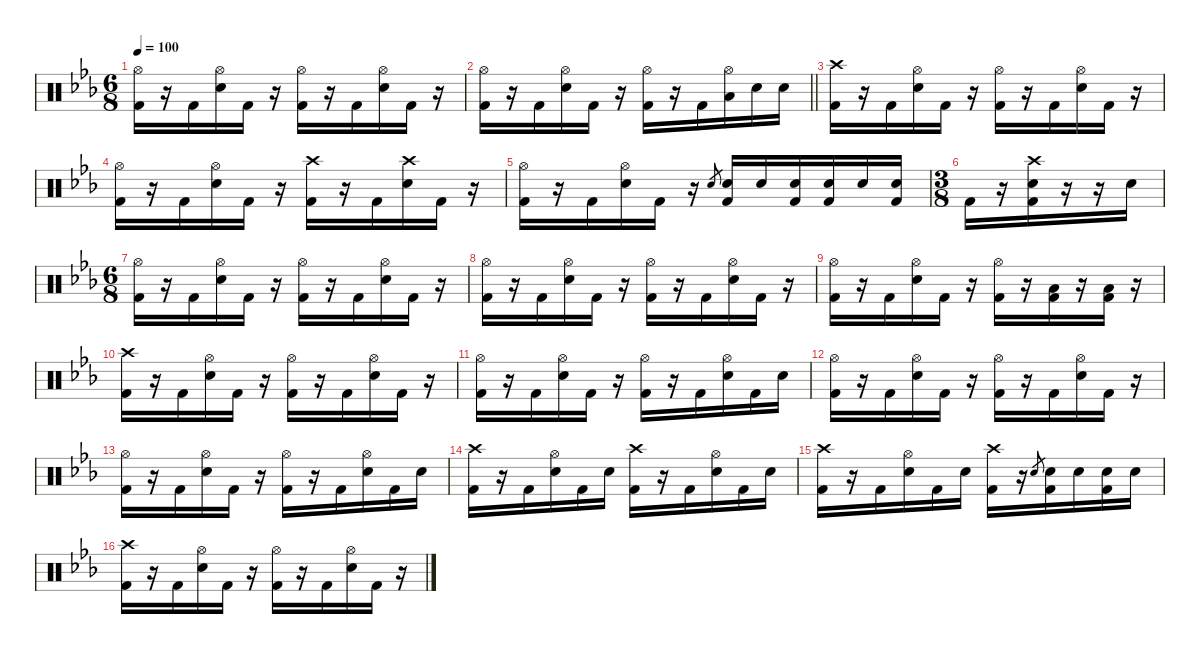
\defaultSystemsLayout 4
\hideDynamics
\bracketExtendMode nobrackets
\singleTrackTrackNamePolicy hidden
\multiTrackTrackNamePolicy hidden
\firstSystemTrackNameMode fullname
\otherSystemsTrackNameOrientation horizontal
\track ("DRUMS" "drm.") {instrument percussion}
\staff {score}
\articulation defaults
\ts (6 8)
\tempo 100
\clef neutral
\ks eb
("Hi-Hat (open)"{acc forcenatural} "Kick (hit) 2"{acc forcenatural}).16{dy f beam Down} r.16{beam Down} "Kick (hit) 2"{acc forcenatural}.16{beam Down} ("Hi-Hat (open)"{acc forcenatural} "Snare (hit) 2"{acc forcenatural}).16{beam Down} "Kick (hit) 2"{acc forcenatural}.16{beam Down} r.16{beam Down} ("Hi-Hat (open)"{acc forcenatural} "Kick (hit) 2"{acc forcenatural}).16{beam Down} r.16{beam Down} "Kick (hit) 2"{acc forcenatural}.16{beam Down} ("Hi-Hat (open)"{acc forcenatural} "Snare (hit) 2"{acc forcenatural}).16{beam Down} "Kick (hit) 2"{acc forcenatural}.16{beam Down} r.16{beam Down} |
\barLineRight lightlight
("Hi-Hat (open)"{acc forcenatural} "Kick (hit) 2"{acc forcenatural}).16{beam Down} r.16{beam Down} "Kick (hit) 2"{acc forcenatural}.16{beam Down} ("Hi-Hat (open)"{acc forcenatural} "Snare (hit) 2"{acc forcenatural}).16{beam Down} "Kick (hit) 2"{acc forcenatural}.16{beam Down} r.16{beam Down} ("Hi-Hat (open)"{acc forcenatural} "Kick (hit) 2"{acc forcenatural}).16{beam Down} r.16{beam Down} "Kick (hit) 2"{acc forcenatural}.16{beam Down} ("Hi-Hat (open)"{acc forcenatural} "Low Tom (hit)"{acc forcenatural}).16{beam Down} "Snare (hit) 2"{acc forcenatural}.16{beam Down} "Snare (hit) 2"{acc forcenatural}.16{beam Down} |
("Crash high (hit)"{acc forcenatural} "Kick (hit) 2"{acc forcenatural}).16{beam Down} r.16{beam Down} "Kick (hit) 2"{acc forcenatural}.16{beam Down} ("Hi-Hat (open)"{acc forcenatural} "Snare (hit) 2"{acc forcenatural}).16{beam Down} "Kick (hit) 2"{acc forcenatural}.16{beam Down} r.16{beam Down} ("Hi-Hat (open)"{acc forcenatural} "Kick (hit) 2"{acc forcenatural}).16{beam Down} r.16{beam Down} "Kick (hit) 2"{acc forcenatural}.16{beam Down} ("Hi-Hat (open)"{acc forcenatural} "Snare (hit) 2"{acc forcenatural}).16{beam Down} "Kick (hit) 2"{acc forcenatural}.16{beam Down} r.16{beam Down} |
("Hi-Hat (open)"{acc forcenatural} "Kick (hit) 2"{acc forcenatural}).16{beam Down} r.16{beam Down} "Kick (hit) 2"{acc forcenatural}.16{beam Down} ("Hi-Hat (open)"{acc forcenatural} "Snare (hit) 2"{acc forcenatural}).16{beam Down} "Kick (hit) 2"{acc forcenatural}.16{beam Down} r.16{beam Down} ("Crash high (hit)"{acc forcenatural} "Kick (hit) 2"{acc forcenatural}).16{beam Down} r.16{beam Down} "Kick (hit) 2"{acc forcenatural}.16{beam Down} ("Crash high (hit)"{acc forcenatural} "Snare (hit) 2"{acc forcenatural}).16{beam Down} "Kick (hit) 2"{acc forcenatural}.16{beam Down} r.16{beam Down} |
("Hi-Hat (open)"{acc forcenatural} "Kick (hit) 2"{acc forcenatural}).16{beam Down} r.16{beam Down} "Kick (hit) 2"{acc forcenatural}.16{beam Down} ("Hi-Hat (open)"{acc forcenatural} "Snare (hit) 2"{acc forcenatural}).16{beam Down} "Kick (hit) 2"{acc forcenatural}.16{beam Down} r.16{beam Down} "Electric Snare (hit)"{acc forcenatural}.8{gr beam Up} ("Snare (hit) 2"{acc forcenatural} "Kick (hit) 2"{acc forcenatural}).16{dy ff beam Up} "Snare (hit) 2"{acc forcenatural}.16{dy mf beam Up} ("Snare (hit) 2"{acc forcenatural} "Kick (hit) 2"{acc forcenatural}).16{beam Up} ("Snare (hit) 2"{acc forcenatural} "Kick (hit) 2"{acc forcenatural}).16{dy ff beam Up} "Snare (hit) 2"{acc forcenatural}.16{dy mf beam Up} ("Snare (hit) 2"{acc forcenatural} "Kick (hit) 2"{acc forcenatural}).16{beam Up} |
\ts (3 8)
\beaming (8 3)
"Kick (hit) 2"{acc forcenatural}.16{dy f beam Down} r.16{beam Down} ("Crash high (hit)"{acc forcenatural} "Snare (hit) 2"{acc forcenatural} "Kick (hit) 2"{acc forcenatural}).16{dy ff beam Down} r.16{beam Down} r.16{beam Down} "Snare (hit) 2"{acc forcenatural}.16{dy f beam Down} |
\ts (6 8)
\beaming (8 3 3)
("Hi-Hat (open)"{acc forcenatural} "Kick (hit) 2"{acc forcenatural}).16{beam Down} r.16{beam Down} "Kick (hit) 2"{acc forcenatural}.16{beam Down} ("Hi-Hat (open)"{acc forcenatural} "Snare (hit) 2"{acc forcenatural}).16{beam Down} "Kick (hit) 2"{acc forcenatural}.16{beam Down} r.16{beam Down} ("Hi-Hat (open)"{acc forcenatural} "Kick (hit) 2"{acc forcenatural}).16{beam Down} r.16{beam Down} "Kick (hit) 2"{acc forcenatural}.16{beam Down} ("Hi-Hat (open)"{acc forcenatural} "Snare (hit) 2"{acc forcenatural}).16{beam Down} "Kick (hit) 2"{acc forcenatural}.16{beam Down} r.16{beam Down} |
("Hi-Hat (open)"{acc forcenatural} "Kick (hit) 2"{acc forcenatural}).16{beam Down} r.16{beam Down} "Kick (hit) 2"{acc forcenatural}.16{beam Down} ("Hi-Hat (open)"{acc forcenatural} "Snare (hit) 2"{acc forcenatural}).16{beam Down} "Kick (hit) 2"{acc forcenatural}.16{beam Down} r.16{beam Down} ("Hi-Hat (open)"{acc forcenatural} "Kick (hit) 2"{acc forcenatural}).16{beam Down} r.16{beam Down} "Kick (hit) 2"{acc forcenatural}.16{beam Down} ("Hi-Hat (open)"{acc forcenatural} "Snare (hit) 2"{acc forcenatural}).16{beam Down} "Kick (hit) 2"{acc forcenatural}.16{beam Down} r.16{beam Down} |
("Hi-Hat (open)"{acc forcenatural} "Kick (hit) 2"{acc forcenatural}).16{beam Down} r.16{beam Down} "Kick (hit) 2"{acc forcenatural}.16{beam Down} ("Hi-Hat (open)"{acc forcenatural} "Snare (hit) 2"{acc forcenatural}).16{beam Down} "Kick (hit) 2"{acc forcenatural}.16{beam Down} r.16{beam Down} ("Hi-Hat (open)"{acc forcenatural} "Kick (hit) 2"{acc forcenatural}).16{beam Down} r.16{beam Down} ("Low Tom (hit)"{acc forcenatural} "Kick (hit) 2"{acc forcenatural}).16{dy ff beam Down} r.16{beam Down} ("Low Tom (hit)"{acc forcenatural} "Kick (hit) 2"{acc forcenatural}).16{beam Down} r.16{beam Down} |
("Crash high (hit)"{acc forcenatural} "Kick (hit) 2"{acc forcenatural}).16{dy f beam Down} r.16{beam Down} "Kick (hit) 2"{acc forcenatural}.16{beam Down} ("Hi-Hat (open)"{acc forcenatural} "Snare (hit) 2"{acc forcenatural}).16{beam Down} "Kick (hit) 2"{acc forcenatural}.16{beam Down} r.16{beam Down} ("Hi-Hat (open)"{acc forcenatural} "Kick (hit) 2"{acc forcenatural}).16{beam Down} r.16{beam Down} "Kick (hit) 2"{acc forcenatural}.16{beam Down} ("Hi-Hat (open)"{acc forcenatural} "Snare (hit) 2"{acc forcenatural}).16{beam Down} "Kick (hit) 2"{acc forcenatural}.16{beam Down} r.16{beam Down} |
("Hi-Hat (open)"{acc forcenatural} "Kick (hit) 2"{acc forcenatural}).16{beam Down} r.16{beam Down} "Kick (hit) 2"{acc forcenatural}.16{beam Down} ("Hi-Hat (open)"{acc forcenatural} "Snare (hit) 2"{acc forcenatural}).16{beam Down} "Kick (hit) 2"{acc forcenatural}.16{beam Down} r.16{beam Down} ("Hi-Hat (open)"{acc forcenatural} "Kick (hit) 2"{acc forcenatural}).16{beam Down} r.16{beam Down} "Kick (hit) 2"{acc forcenatural}.16{beam Down} ("Hi-Hat (open)"{acc forcenatural} "Snare (hit) 2"{acc forcenatural}).16{beam Down} "Kick (hit) 2"{acc forcenatural}.16{beam Down} "Snare (hit) 2"{acc forcenatural}.16{dy ff beam Down} |
("Hi-Hat (open)"{acc forcenatural} "Kick (hit) 2"{acc forcenatural}).16{dy f beam Down} r.16{beam Down} "Kick (hit) 2"{acc forcenatural}.16{beam Down} ("Hi-Hat (open)"{acc forcenatural} "Snare (hit) 2"{acc forcenatural}).16{beam Down} "Kick (hit) 2"{acc forcenatural}.16{beam Down} r.16{beam Down} ("Hi-Hat (open)"{acc forcenatural} "Kick (hit) 2"{acc forcenatural}).16{beam Down} r.16{beam Down} "Kick (hit) 2"{acc forcenatural}.16{beam Down} ("Hi-Hat (open)"{acc forcenatural} "Snare (hit) 2"{acc forcenatural}).16{beam Down} "Kick (hit) 2"{acc forcenatural}.16{beam Down} r.16{beam Down} |
("Hi-Hat (open)"{acc forcenatural} "Kick (hit) 2"{acc forcenatural}).16{beam Down} r.16{beam Down} "Kick (hit) 2"{acc forcenatural}.16{beam Down} ("Hi-Hat (open)"{acc forcenatural} "Snare (hit) 2"{acc forcenatural}).16{beam Down} "Kick (hit) 2"{acc forcenatural}.16{beam Down} r.16{beam Down} ("Hi-Hat (open)"{acc forcenatural} "Kick (hit) 2"{acc forcenatural}).16{beam Down} r.16{beam Down} "Kick (hit) 2"{acc forcenatural}.16{beam Down} ("Hi-Hat (open)"{acc forcenatural} "Snare (hit) 2"{acc forcenatural}).16{beam Down} "Kick (hit) 2"{acc forcenatural}.16{beam Down} "Snare (hit) 2"{acc forcenatural}.16{dy ff beam Down} |
("Crash high (hit)"{acc forcenatural} "Kick (hit) 2"{acc forcenatural}).16{dy f beam Down} r.16{beam Down} "Kick (hit) 2"{acc forcenatural}.16{beam Down} ("Hi-Hat (open)"{acc forcenatural} "Snare (hit) 2"{acc forcenatural}).16{beam Down} "Kick (hit) 2"{acc forcenatural}.16{beam Down} "Snare (hit) 2"{acc forcenatural}.16{dy ff beam Down} ("Crash high (hit)"{acc forcenatural} "Kick (hit) 2"{acc forcenatural}).16{dy f beam Down} r.16{beam Down} "Kick (hit) 2"{acc forcenatural}.16{beam Down} ("Hi-Hat (open)"{acc forcenatural} "Snare (hit) 2"{acc forcenatural}).16{beam Down} "Kick (hit) 2"{acc forcenatural}.16{beam Down} "Snare (hit) 2"{acc forcenatural}.16{dy ff beam Down} |
("Crash high (hit)"{acc forcenatural} "Kick (hit) 2"{acc forcenatural}).16{dy f beam Down} r.16{beam Down} "Kick (hit) 2"{acc forcenatural}.16{beam Down} ("Hi-Hat (open)"{acc forcenatural} "Snare (hit) 2"{acc forcenatural}).16{beam Down} "Kick (hit) 2"{acc forcenatural}.16{beam Down} "Snare (hit) 2"{acc forcenatural}.16{dy ff beam Down} ("Crash high (hit)"{acc forcenatural} "Kick (hit) 2"{acc forcenatural}).16{dy f beam Down} r.16{beam Down} "Electric Snare (hit)"{acc forcenatural}.8{gr beam Up} ("Snare (hit) 2"{acc forcenatural} "Kick (hit) 2"{acc forcenatural}).16{dy fff beam Down} "Snare (hit) 2"{acc forcenatural}.16{dy ff beam Down} ("Snare (hit) 2"{acc forcenatural} "Kick (hit) 2"{acc forcenatural}).16{beam Down} "Snare (hit) 2"{acc forcenatural}.16{beam Down} |
("Crash high (hit)"{acc forcenatural} "Kick (hit) 2"{acc forcenatural}).16{beam Down} r.16{beam Down} "Kick (hit) 2"{acc forcenatural}.16{dy f beam Down} ("Hi-Hat (open)"{acc forcenatural} "Snare (hit) 2"{acc forcenatural}).16{beam Down} "Kick (hit) 2"{acc forcenatural}.16{beam Down} r.16{beam Down} ("Hi-Hat (open)"{acc forcenatural} "Kick (hit) 2"{acc forcenatural}).16{beam Down} r.16{beam Down} "Kick (hit) 2"{acc forcenatural}.16{beam Down} ("Hi-Hat (open)"{acc forcenatural} "Snare (hit) 2"{acc forcenatural}).16{beam Down} "Kick (hit) 2"{acc forcenatural}.16{beam Down} r.16{beam Down}
